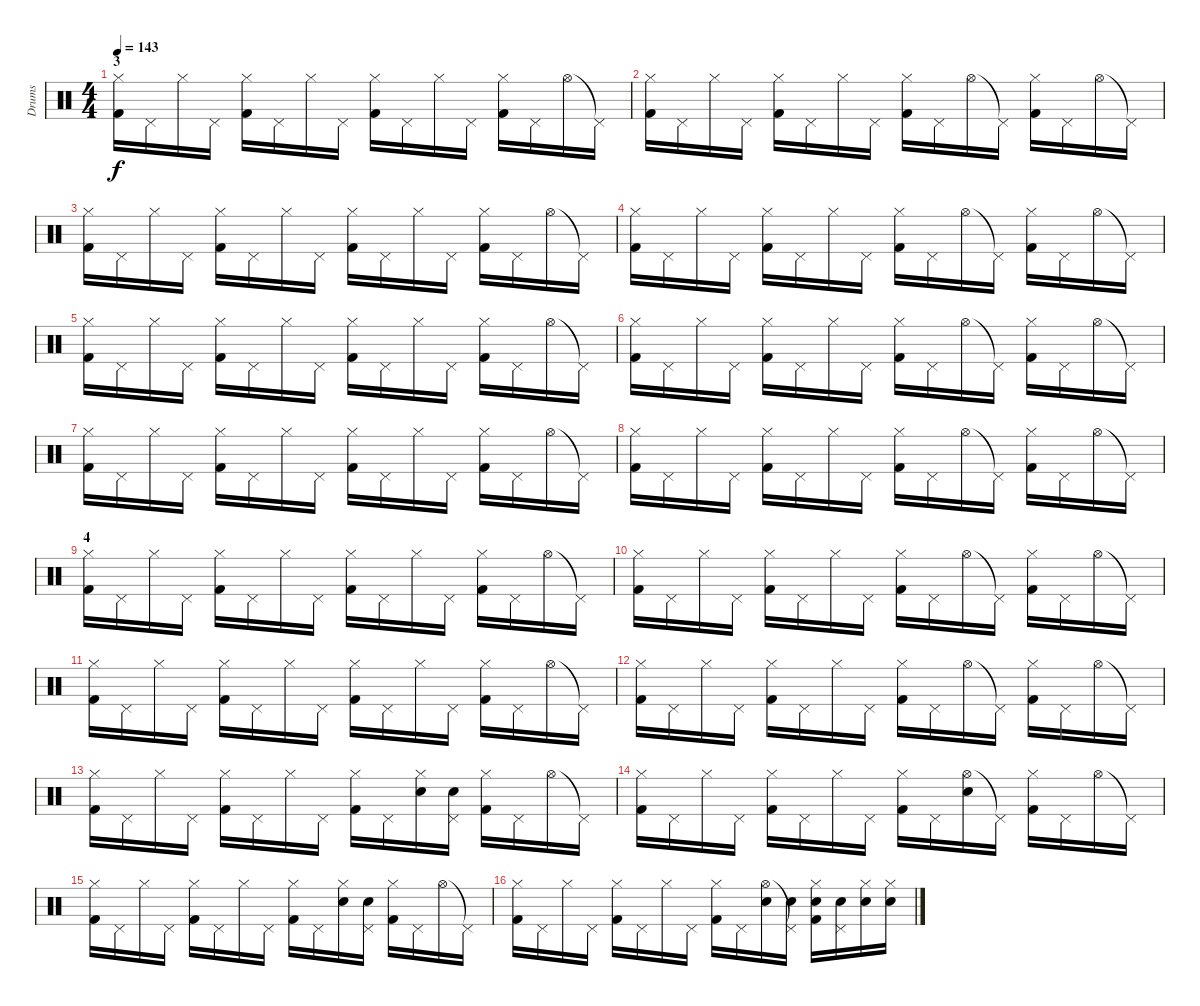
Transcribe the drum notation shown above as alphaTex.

\track ("Drums" "Drums") {instrument percussion}
\staff {score}
\articulation defaults
\ts (4 4)
\section ("" "3")
\tempo 143
\clef neutral
\ks c
("Hi-Hat (closed)" "Kick (hit) 2").16{dy f} "Pedal Hi-Hat (hit)".16 "Hi-Hat (closed)".16 "Pedal Hi-Hat (hit)".16 ("Hi-Hat (closed)" "Kick (hit) 2").16 "Pedal Hi-Hat (hit)".16 "Hi-Hat (closed)".16 "Pedal Hi-Hat (hit)".16 ("Hi-Hat (closed)" "Kick (hit) 2").16 "Pedal Hi-Hat (hit)".16 "Hi-Hat (closed)".16 "Pedal Hi-Hat (hit)".16 ("Hi-Hat (closed)" "Kick (hit) 2").16 "Pedal Hi-Hat (hit)".16 "Hi-Hat (open)".16 "Pedal Hi-Hat (hit)"{t}.16 |
("Hi-Hat (closed)" "Kick (hit) 2").16 "Pedal Hi-Hat (hit)".16 "Hi-Hat (closed)".16 "Pedal Hi-Hat (hit)".16 ("Hi-Hat (closed)" "Kick (hit) 2").16 "Pedal Hi-Hat (hit)".16 "Hi-Hat (closed)".16 "Pedal Hi-Hat (hit)".16 ("Hi-Hat (closed)" "Kick (hit) 2").16 "Pedal Hi-Hat (hit)".16 "Hi-Hat (open)".16 "Pedal Hi-Hat (hit)"{t}.16 ("Hi-Hat (closed)" "Kick (hit) 2").16 "Pedal Hi-Hat (hit)".16 "Hi-Hat (open)".16 "Pedal Hi-Hat (hit)"{t}.16 |
("Hi-Hat (closed)" "Kick (hit) 2").16 "Pedal Hi-Hat (hit)".16 "Hi-Hat (closed)".16 "Pedal Hi-Hat (hit)".16 ("Hi-Hat (closed)" "Kick (hit) 2").16 "Pedal Hi-Hat (hit)".16 "Hi-Hat (closed)".16 "Pedal Hi-Hat (hit)".16 ("Hi-Hat (closed)" "Kick (hit) 2").16 "Pedal Hi-Hat (hit)".16 "Hi-Hat (closed)".16 "Pedal Hi-Hat (hit)".16 ("Hi-Hat (closed)" "Kick (hit) 2").16 "Pedal Hi-Hat (hit)".16 "Hi-Hat (open)".16 "Pedal Hi-Hat (hit)"{t}.16 |
("Hi-Hat (closed)" "Kick (hit) 2").16 "Pedal Hi-Hat (hit)".16 "Hi-Hat (closed)".16 "Pedal Hi-Hat (hit)".16 ("Hi-Hat (closed)" "Kick (hit) 2").16 "Pedal Hi-Hat (hit)".16 "Hi-Hat (closed)".16 "Pedal Hi-Hat (hit)".16 ("Hi-Hat (closed)" "Kick (hit) 2").16 "Pedal Hi-Hat (hit)".16 "Hi-Hat (open)".16 "Pedal Hi-Hat (hit)"{t}.16 ("Hi-Hat (closed)" "Kick (hit) 2").16 "Pedal Hi-Hat (hit)".16 "Hi-Hat (open)".16 "Pedal Hi-Hat (hit)"{t}.16 |
("Hi-Hat (closed)" "Kick (hit) 2").16 "Pedal Hi-Hat (hit)".16 "Hi-Hat (closed)".16 "Pedal Hi-Hat (hit)".16 ("Hi-Hat (closed)" "Kick (hit) 2").16 "Pedal Hi-Hat (hit)".16 "Hi-Hat (closed)".16 "Pedal Hi-Hat (hit)".16 ("Hi-Hat (closed)" "Kick (hit) 2").16 "Pedal Hi-Hat (hit)".16 "Hi-Hat (closed)".16 "Pedal Hi-Hat (hit)".16 ("Hi-Hat (closed)" "Kick (hit) 2").16 "Pedal Hi-Hat (hit)".16 "Hi-Hat (open)".16 "Pedal Hi-Hat (hit)"{t}.16 |
("Hi-Hat (closed)" "Kick (hit) 2").16 "Pedal Hi-Hat (hit)".16 "Hi-Hat (closed)".16 "Pedal Hi-Hat (hit)".16 ("Hi-Hat (closed)" "Kick (hit) 2").16 "Pedal Hi-Hat (hit)".16 "Hi-Hat (closed)".16 "Pedal Hi-Hat (hit)".16 ("Hi-Hat (closed)" "Kick (hit) 2").16 "Pedal Hi-Hat (hit)".16 "Hi-Hat (open)".16 "Pedal Hi-Hat (hit)"{t}.16 ("Hi-Hat (closed)" "Kick (hit) 2").16 "Pedal Hi-Hat (hit)".16 "Hi-Hat (open)".16 "Pedal Hi-Hat (hit)"{t}.16 |
("Hi-Hat (closed)" "Kick (hit) 2").16 "Pedal Hi-Hat (hit)".16 "Hi-Hat (closed)".16 "Pedal Hi-Hat (hit)".16 ("Hi-Hat (closed)" "Kick (hit) 2").16 "Pedal Hi-Hat (hit)".16 "Hi-Hat (closed)".16 "Pedal Hi-Hat (hit)".16 ("Hi-Hat (closed)" "Kick (hit) 2").16 "Pedal Hi-Hat (hit)".16 "Hi-Hat (closed)".16 "Pedal Hi-Hat (hit)".16 ("Hi-Hat (closed)" "Kick (hit) 2").16 "Pedal Hi-Hat (hit)".16 "Hi-Hat (open)".16 "Pedal Hi-Hat (hit)"{t}.16 |
("Hi-Hat (closed)" "Kick (hit) 2").16 "Pedal Hi-Hat (hit)".16 "Hi-Hat (closed)".16 "Pedal Hi-Hat (hit)".16 ("Hi-Hat (closed)" "Kick (hit) 2").16 "Pedal Hi-Hat (hit)".16 "Hi-Hat (closed)".16 "Pedal Hi-Hat (hit)".16 ("Hi-Hat (closed)" "Kick (hit) 2").16 "Pedal Hi-Hat (hit)".16 "Hi-Hat (open)".16 "Pedal Hi-Hat (hit)"{t}.16 ("Hi-Hat (closed)" "Kick (hit) 2").16 "Pedal Hi-Hat (hit)".16 "Hi-Hat (open)".16 "Pedal Hi-Hat (hit)"{t}.16 |
\section ("" "4")
("Hi-Hat (closed)" "Kick (hit) 2").16 "Pedal Hi-Hat (hit)".16 "Hi-Hat (closed)".16 "Pedal Hi-Hat (hit)".16 ("Hi-Hat (closed)" "Kick (hit) 2").16 "Pedal Hi-Hat (hit)".16 "Hi-Hat (closed)".16 "Pedal Hi-Hat (hit)".16 ("Hi-Hat (closed)" "Kick (hit) 2").16 "Pedal Hi-Hat (hit)".16 "Hi-Hat (closed)".16 "Pedal Hi-Hat (hit)".16 ("Hi-Hat (closed)" "Kick (hit) 2").16 "Pedal Hi-Hat (hit)".16 "Hi-Hat (open)".16 "Pedal Hi-Hat (hit)"{t}.16 |
("Hi-Hat (closed)" "Kick (hit) 2").16 "Pedal Hi-Hat (hit)".16 "Hi-Hat (closed)".16 "Pedal Hi-Hat (hit)".16 ("Hi-Hat (closed)" "Kick (hit) 2").16 "Pedal Hi-Hat (hit)".16 "Hi-Hat (closed)".16 "Pedal Hi-Hat (hit)".16 ("Hi-Hat (closed)" "Kick (hit) 2").16 "Pedal Hi-Hat (hit)".16 "Hi-Hat (open)".16 "Pedal Hi-Hat (hit)"{t}.16 ("Hi-Hat (closed)" "Kick (hit) 2").16 "Pedal Hi-Hat (hit)".16 "Hi-Hat (open)".16 "Pedal Hi-Hat (hit)"{t}.16 |
("Hi-Hat (closed)" "Kick (hit) 2").16 "Pedal Hi-Hat (hit)".16 "Hi-Hat (closed)".16 "Pedal Hi-Hat (hit)".16 ("Hi-Hat (closed)" "Kick (hit) 2").16 "Pedal Hi-Hat (hit)".16 "Hi-Hat (closed)".16 "Pedal Hi-Hat (hit)".16 ("Hi-Hat (closed)" "Kick (hit) 2").16 "Pedal Hi-Hat (hit)".16 "Hi-Hat (closed)".16 "Pedal Hi-Hat (hit)".16 ("Hi-Hat (closed)" "Kick (hit) 2").16 "Pedal Hi-Hat (hit)".16 "Hi-Hat (open)".16 "Pedal Hi-Hat (hit)"{t}.16 |
("Hi-Hat (closed)" "Kick (hit) 2").16 "Pedal Hi-Hat (hit)".16 "Hi-Hat (closed)".16 "Pedal Hi-Hat (hit)".16 ("Hi-Hat (closed)" "Kick (hit) 2").16 "Pedal Hi-Hat (hit)".16 "Hi-Hat (closed)".16 "Pedal Hi-Hat (hit)".16 ("Hi-Hat (closed)" "Kick (hit) 2").16 "Pedal Hi-Hat (hit)".16 "Hi-Hat (open)".16 "Pedal Hi-Hat (hit)"{t}.16 ("Hi-Hat (closed)" "Kick (hit) 2").16 "Pedal Hi-Hat (hit)".16 "Hi-Hat (open)".16 "Pedal Hi-Hat (hit)"{t}.16 |
("Hi-Hat (closed)" "Kick (hit) 2").16 "Pedal Hi-Hat (hit)".16 "Hi-Hat (closed)".16 "Pedal Hi-Hat (hit)".16 ("Hi-Hat (closed)" "Kick (hit) 2").16 "Pedal Hi-Hat (hit)".16 "Hi-Hat (closed)".16 "Pedal Hi-Hat (hit)".16 ("Hi-Hat (closed)" "Kick (hit) 2").16 "Pedal Hi-Hat (hit)".16 ("Hi-Hat (closed)" "Electric Snare (hit)").16 ("Pedal Hi-Hat (hit)" "Electric Snare (hit)").16 ("Hi-Hat (closed)" "Kick (hit) 2").16 "Pedal Hi-Hat (hit)".16 "Hi-Hat (open)".16 "Pedal Hi-Hat (hit)"{t}.16 |
("Hi-Hat (closed)" "Kick (hit) 2").16 "Pedal Hi-Hat (hit)".16 "Hi-Hat (closed)".16 "Pedal Hi-Hat (hit)".16 ("Hi-Hat (closed)" "Kick (hit) 2").16 "Pedal Hi-Hat (hit)".16 "Hi-Hat (closed)".16 "Pedal Hi-Hat (hit)".16 ("Hi-Hat (closed)" "Kick (hit) 2").16 "Pedal Hi-Hat (hit)".16 ("Hi-Hat (open)" "Electric Snare (hit)").16 "Pedal Hi-Hat (hit)"{t}.16 ("Hi-Hat (closed)" "Kick (hit) 2").16 "Pedal Hi-Hat (hit)".16 "Hi-Hat (open)".16 "Pedal Hi-Hat (hit)"{t}.16 |
("Hi-Hat (closed)" "Kick (hit) 2").16 "Pedal Hi-Hat (hit)".16 "Hi-Hat (closed)".16 "Pedal Hi-Hat (hit)".16 ("Hi-Hat (closed)" "Kick (hit) 2").16 "Pedal Hi-Hat (hit)".16 "Hi-Hat (closed)".16 "Pedal Hi-Hat (hit)".16 ("Hi-Hat (closed)" "Kick (hit) 2").16 "Pedal Hi-Hat (hit)".16 ("Hi-Hat (closed)" "Electric Snare (hit)").16 ("Pedal Hi-Hat (hit)" "Electric Snare (hit)").16 ("Hi-Hat (closed)" "Kick (hit) 2").16 "Pedal Hi-Hat (hit)".16 "Hi-Hat (open)".16 "Pedal Hi-Hat (hit)"{t}.16 |
("Hi-Hat (closed)" "Kick (hit) 2").16 "Pedal Hi-Hat (hit)".16 "Hi-Hat (closed)".16 "Pedal Hi-Hat (hit)".16 ("Hi-Hat (closed)" "Kick (hit) 2").16 "Pedal Hi-Hat (hit)".16 "Hi-Hat (closed)".16 "Pedal Hi-Hat (hit)".16 ("Hi-Hat (closed)" "Kick (hit) 2").16 "Pedal Hi-Hat (hit)".16 ("Hi-Hat (open)" "Electric Snare (hit)").16 ("Pedal Hi-Hat (hit)"{t} "Electric Snare (hit)").16 ("Hi-Hat (closed)" "Kick (hit) 2" "Electric Snare (hit)").16 ("Pedal Hi-Hat (hit)" "Electric Snare (hit)").16 ("Hi-Hat (closed)" "Electric Snare (hit)").16 ("Hi-Hat (closed)" "Electric Snare (hit)").16
